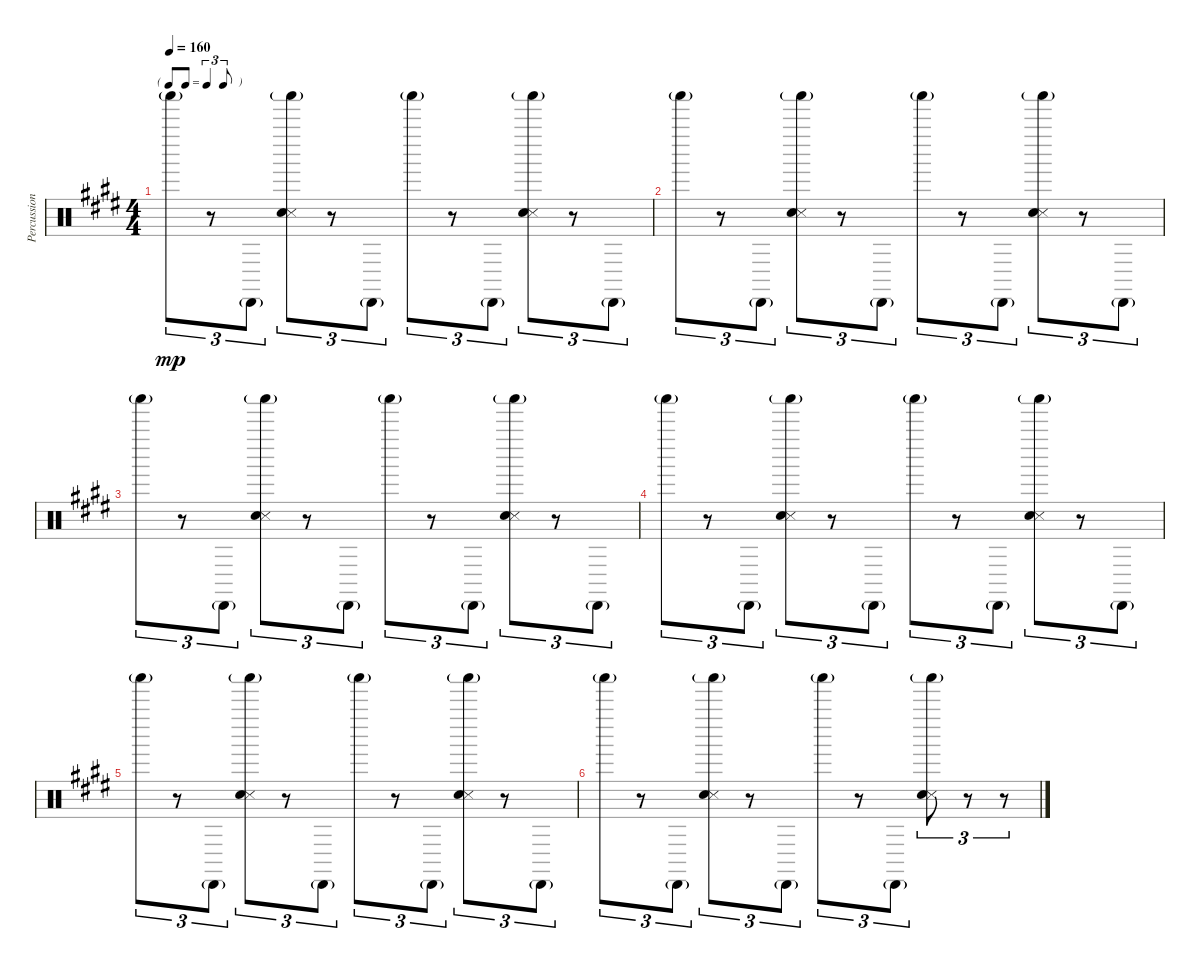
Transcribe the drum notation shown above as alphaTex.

\track ("Percussion" "Percussion") {instrument percussion}
\staff {score}
\articulation defaults
\ts (4 4)
\tf triplet8th
\tempo 160
\clef neutral
\ks e "Shaker (hit)"{g}.8{tu (3 2) dy mp}
r.8{tu (3 2)} "Cabasa (hit)"{g}.8{tu (3 2)} ("Shaker (hit)"{g} "Snare (side stick) 3" "Hand Clap (hit)").8{tu (3 2)} r.8{tu (3 2)} "Cabasa (hit)"{g}.8{tu (3 2)} "Shaker (hit)"{g}.8{tu (3 2)} r.8{tu (3 2)} "Cabasa (hit)"{g}.8{tu (3 2)} ("Shaker (hit)"{g} "Snare (side stick) 3" "Hand Clap (hit)").8{tu (3 2)} r.8{tu (3 2)} "Cabasa (hit)"{g}.8{tu (3 2)} |
"Shaker (hit)"{g}.8{tu (3 2)} r.8{tu (3 2)} "Cabasa (hit)"{g}.8{tu (3 2)} ("Shaker (hit)"{g} "Snare (side stick) 3" "Hand Clap (hit)").8{tu (3 2)} r.8{tu (3 2)} "Cabasa (hit)"{g}.8{tu (3 2)} "Shaker (hit)"{g}.8{tu (3 2)} r.8{tu (3 2)} "Cabasa (hit)"{g}.8{tu (3 2)} ("Shaker (hit)"{g} "Snare (side stick) 3" "Hand Clap (hit)").8{tu (3 2)} r.8{tu (3 2)} "Cabasa (hit)"{g}.8{tu (3 2)} |
"Shaker (hit)"{g}.8{tu (3 2)} r.8{tu (3 2)} "Cabasa (hit)"{g}.8{tu (3 2)} ("Shaker (hit)"{g} "Snare (side stick) 3" "Hand Clap (hit)").8{tu (3 2)} r.8{tu (3 2)} "Cabasa (hit)"{g}.8{tu (3 2)} "Shaker (hit)"{g}.8{tu (3 2)} r.8{tu (3 2)} "Cabasa (hit)"{g}.8{tu (3 2)} ("Shaker (hit)"{g} "Snare (side stick) 3" "Hand Clap (hit)").8{tu (3 2)} r.8{tu (3 2)} "Cabasa (hit)"{g}.8{tu (3 2)} |
"Shaker (hit)"{g}.8{tu (3 2)} r.8{tu (3 2)} "Cabasa (hit)"{g}.8{tu (3 2)} ("Shaker (hit)"{g} "Snare (side stick) 3" "Hand Clap (hit)").8{tu (3 2)} r.8{tu (3 2)} "Cabasa (hit)"{g}.8{tu (3 2)} "Shaker (hit)"{g}.8{tu (3 2)} r.8{tu (3 2)} "Cabasa (hit)"{g}.8{tu (3 2)} ("Shaker (hit)"{g} "Snare (side stick) 3" "Hand Clap (hit)").8{tu (3 2)} r.8{tu (3 2)} "Cabasa (hit)"{g}.8{tu (3 2)} |
"Shaker (hit)"{g}.8{tu (3 2)} r.8{tu (3 2)} "Cabasa (hit)"{g}.8{tu (3 2)} ("Shaker (hit)"{g} "Snare (side stick) 3" "Hand Clap (hit)").8{tu (3 2)} r.8{tu (3 2)} "Cabasa (hit)"{g}.8{tu (3 2)} "Shaker (hit)"{g}.8{tu (3 2)} r.8{tu (3 2)} "Cabasa (hit)"{g}.8{tu (3 2)} ("Shaker (hit)"{g} "Snare (side stick) 3" "Hand Clap (hit)").8{tu (3 2)} r.8{tu (3 2)} "Cabasa (hit)"{g}.8{tu (3 2)} |
"Shaker (hit)"{g}.8{tu (3 2)} r.8{tu (3 2)} "Cabasa (hit)"{g}.8{tu (3 2)} ("Shaker (hit)"{g} "Snare (side stick) 3" "Hand Clap (hit)").8{tu (3 2)} r.8{tu (3 2)} "Cabasa (hit)"{g}.8{tu (3 2)} "Shaker (hit)"{g}.8{tu (3 2)} r.8{tu (3 2)} "Cabasa (hit)"{g}.8{tu (3 2)} ("Shaker (hit)"{g} "Snare (side stick) 3" "Hand Clap (hit)").8{tu (3 2)} r.8{tu (3 2)} r.8{tu (3 2)}
